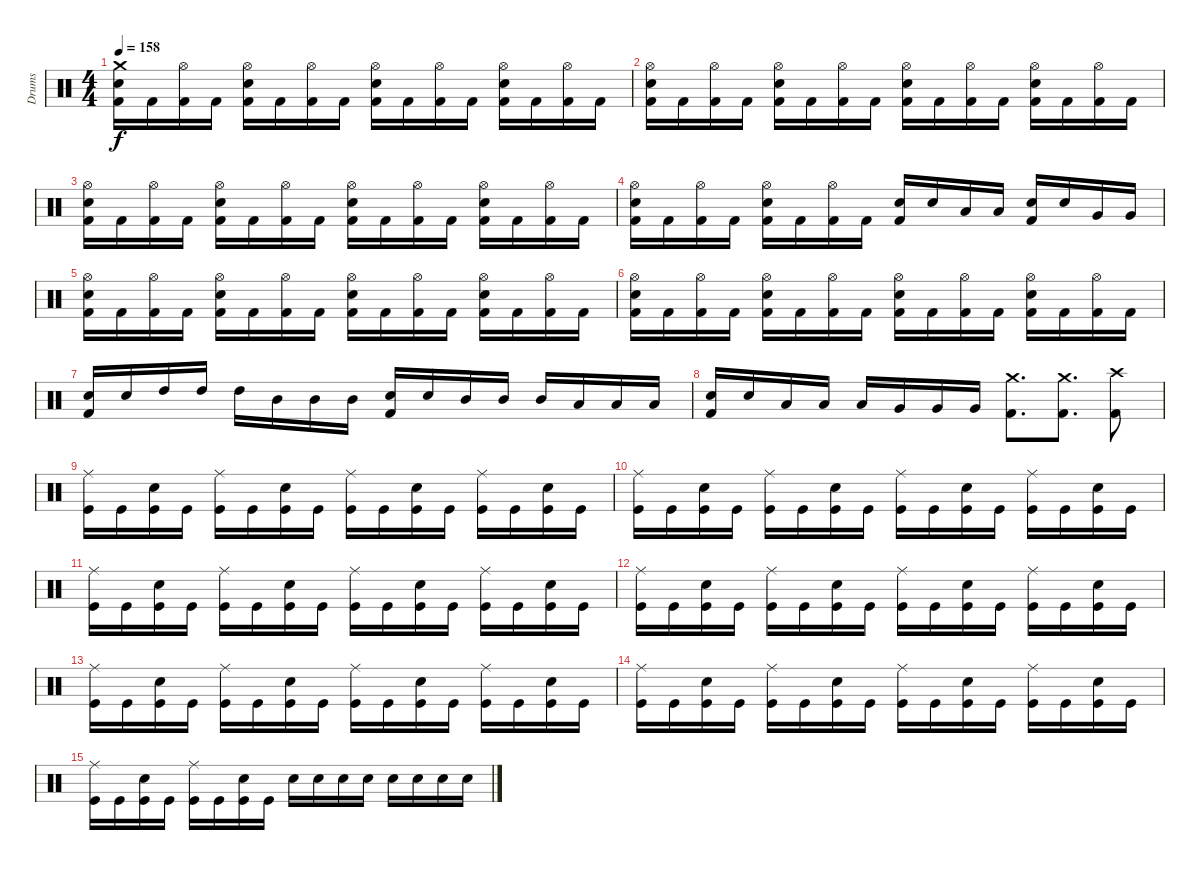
\track ("Drums" "Drums") {instrument percussion}
\staff {score}
\articulation defaults
\ts (4 4)
\tempo 158
\clef neutral
\ks c
("Crash medium (hit)" "Snare (hit) 2" "Kick (hit) 2").16{dy f} "Kick (hit) 2".16 ("Hi-Hat (open)" "Kick (hit) 2").16 "Kick (hit) 2".16 ("Hi-Hat (open)" "Snare (hit) 2" "Kick (hit) 2").16 "Kick (hit) 2".16 ("Hi-Hat (open)" "Kick (hit) 2").16 "Kick (hit) 2".16 ("Hi-Hat (open)" "Snare (hit) 2" "Kick (hit) 2").16 "Kick (hit) 2".16 ("Hi-Hat (open)" "Kick (hit) 2").16 "Kick (hit) 2".16 ("Hi-Hat (open)" "Snare (hit) 2" "Kick (hit) 2").16 "Kick (hit) 2".16 ("Hi-Hat (open)" "Kick (hit) 2").16 "Kick (hit) 2".16 |
("Hi-Hat (open)" "Snare (hit) 2" "Kick (hit) 2").16 "Kick (hit) 2".16 ("Hi-Hat (open)" "Kick (hit) 2").16 "Kick (hit) 2".16 ("Hi-Hat (open)" "Snare (hit) 2" "Kick (hit) 2").16 "Kick (hit) 2".16 ("Hi-Hat (open)" "Kick (hit) 2").16 "Kick (hit) 2".16 ("Hi-Hat (open)" "Snare (hit) 2" "Kick (hit) 2").16 "Kick (hit) 2".16 ("Hi-Hat (open)" "Kick (hit) 2").16 "Kick (hit) 2".16 ("Hi-Hat (open)" "Snare (hit) 2" "Kick (hit) 2").16 "Kick (hit) 2".16 ("Hi-Hat (open)" "Kick (hit) 2").16 "Kick (hit) 2".16 |
("Hi-Hat (open)" "Snare (hit) 2" "Kick (hit) 2").16 "Kick (hit) 2".16 ("Hi-Hat (open)" "Kick (hit) 2").16 "Kick (hit) 2".16 ("Hi-Hat (open)" "Snare (hit) 2" "Kick (hit) 2").16 "Kick (hit) 2".16 ("Hi-Hat (open)" "Kick (hit) 2").16 "Kick (hit) 2".16 ("Hi-Hat (open)" "Snare (hit) 2" "Kick (hit) 2").16 "Kick (hit) 2".16 ("Hi-Hat (open)" "Kick (hit) 2").16 "Kick (hit) 2".16 ("Hi-Hat (open)" "Snare (hit) 2" "Kick (hit) 2").16 "Kick (hit) 2".16 ("Hi-Hat (open)" "Kick (hit) 2").16 "Kick (hit) 2".16 |
("Hi-Hat (open)" "Snare (hit) 2" "Kick (hit) 2").16 "Kick (hit) 2".16 ("Hi-Hat (open)" "Kick (hit) 2").16 "Kick (hit) 2".16 ("Hi-Hat (open)" "Snare (hit) 2" "Kick (hit) 2").16 "Kick (hit) 2".16 ("Hi-Hat (open)" "Kick (hit) 2").16 "Kick (hit) 2".16 ("Snare (hit) 2" "Kick (hit) 2").16 "Snare (hit) 2".16 "Low Tom (hit)".16 "Low Tom (hit)".16 ("Snare (hit) 2" "Kick (hit) 2").16 "Snare (hit) 2".16 "Very Low Tom (hit)".16 "Very Low Tom (hit)".16 |
("Hi-Hat (open)" "Snare (hit) 2" "Kick (hit) 2").16 "Kick (hit) 2".16 ("Hi-Hat (open)" "Kick (hit) 2").16 "Kick (hit) 2".16 ("Hi-Hat (open)" "Snare (hit) 2" "Kick (hit) 2").16 "Kick (hit) 2".16 ("Hi-Hat (open)" "Kick (hit) 2").16 "Kick (hit) 2".16 ("Hi-Hat (open)" "Snare (hit) 2" "Kick (hit) 2").16 "Kick (hit) 2".16 ("Hi-Hat (open)" "Kick (hit) 2").16 "Kick (hit) 2".16 ("Hi-Hat (open)" "Snare (hit) 2" "Kick (hit) 2").16 "Kick (hit) 2".16 ("Hi-Hat (open)" "Kick (hit) 2").16 "Kick (hit) 2".16 |
("Hi-Hat (open)" "Snare (hit) 2" "Kick (hit) 2").16 "Kick (hit) 2".16 ("Hi-Hat (open)" "Kick (hit) 2").16 "Kick (hit) 2".16 ("Hi-Hat (open)" "Snare (hit) 2" "Kick (hit) 2").16 "Kick (hit) 2".16 ("Hi-Hat (open)" "Kick (hit) 2").16 "Kick (hit) 2".16 ("Hi-Hat (open)" "Snare (hit) 2" "Kick (hit) 2").16 "Kick (hit) 2".16 ("Hi-Hat (open)" "Kick (hit) 2").16 "Kick (hit) 2".16 ("Hi-Hat (open)" "Snare (hit) 2" "Kick (hit) 2").16 "Kick (hit) 2".16 ("Hi-Hat (open)" "Kick (hit) 2").16 "Kick (hit) 2".16 |
("Snare (hit) 2" "Kick (hit) 2").16 "Snare (hit) 2".16 "High Tom (hit)".16 "High Tom (hit)".16 "High Tom (hit)".16 "Mid Tom (hit)".16 "Mid Tom (hit)".16 "Mid Tom (hit)".16 ("Snare (hit) 2" "Kick (hit) 2").16 "Snare (hit) 2".16 "Mid Tom (hit)".16 "Mid Tom (hit)".16 "Mid Tom (hit)".16 "Low Tom (hit)".16 "Low Tom (hit)".16 "Low Tom (hit)".16 |
("Snare (hit) 2" "Kick (hit) 2").16 "Snare (hit) 2".16 "Low Tom (hit)".16 "Low Tom (hit)".16 "Low Tom (hit)".16 "Very Low Tom (hit)".16 "Very Low Tom (hit)".16 "Very Low Tom (hit)".16 ("Crash medium (hit)" "Kick (hit) 2").8{d} ("Crash medium (hit)" "Kick (hit) 2").8{d} ("Crash high (hit)" "Kick (hit) 2").8 |
("Ride (middle)" "Kick (hit)").16 "Kick (hit)".16 ("Snare (hit) 2" "Kick (hit)").16 "Kick (hit)".16 ("Ride (middle)" "Kick (hit)").16 "Kick (hit)".16 ("Snare (hit) 2" "Kick (hit)").16 "Kick (hit)".16 ("Ride (middle)" "Kick (hit)").16 "Kick (hit)".16 ("Snare (hit) 2" "Kick (hit)").16 "Kick (hit)".16 ("Ride (middle)" "Kick (hit)").16 "Kick (hit)".16 ("Snare (hit) 2" "Kick (hit)").16 "Kick (hit)".16 |
("Ride (middle)" "Kick (hit)").16 "Kick (hit)".16 ("Snare (hit) 2" "Kick (hit)").16 "Kick (hit)".16 ("Ride (middle)" "Kick (hit)").16 "Kick (hit)".16 ("Snare (hit) 2" "Kick (hit)").16 "Kick (hit)".16 ("Ride (middle)" "Kick (hit)").16 "Kick (hit)".16 ("Snare (hit) 2" "Kick (hit)").16 "Kick (hit)".16 ("Ride (middle)" "Kick (hit)").16 "Kick (hit)".16 ("Snare (hit) 2" "Kick (hit)").16 "Kick (hit)".16 |
("Ride (middle)" "Kick (hit)").16 "Kick (hit)".16 ("Snare (hit) 2" "Kick (hit)").16 "Kick (hit)".16 ("Ride (middle)" "Kick (hit)").16 "Kick (hit)".16 ("Snare (hit) 2" "Kick (hit)").16 "Kick (hit)".16 ("Ride (middle)" "Kick (hit)").16 "Kick (hit)".16 ("Snare (hit) 2" "Kick (hit)").16 "Kick (hit)".16 ("Ride (middle)" "Kick (hit)").16 "Kick (hit)".16 ("Snare (hit) 2" "Kick (hit)").16 "Kick (hit)".16 |
("Ride (middle)" "Kick (hit)").16 "Kick (hit)".16 ("Snare (hit) 2" "Kick (hit)").16 "Kick (hit)".16 ("Ride (middle)" "Kick (hit)").16 "Kick (hit)".16 ("Snare (hit) 2" "Kick (hit)").16 "Kick (hit)".16 ("Ride (middle)" "Kick (hit)").16 "Kick (hit)".16 ("Snare (hit) 2" "Kick (hit)").16 "Kick (hit)".16 ("Ride (middle)" "Kick (hit)").16 "Kick (hit)".16 ("Snare (hit) 2" "Kick (hit)").16 "Kick (hit)".16 |
("Ride (middle)" "Kick (hit)").16 "Kick (hit)".16 ("Snare (hit) 2" "Kick (hit)").16 "Kick (hit)".16 ("Ride (middle)" "Kick (hit)").16 "Kick (hit)".16 ("Snare (hit) 2" "Kick (hit)").16 "Kick (hit)".16 ("Ride (middle)" "Kick (hit)").16 "Kick (hit)".16 ("Snare (hit) 2" "Kick (hit)").16 "Kick (hit)".16 ("Ride (middle)" "Kick (hit)").16 "Kick (hit)".16 ("Snare (hit) 2" "Kick (hit)").16 "Kick (hit)".16 |
("Ride (middle)" "Kick (hit)").16 "Kick (hit)".16 ("Snare (hit) 2" "Kick (hit)").16 "Kick (hit)".16 ("Ride (middle)" "Kick (hit)").16 "Kick (hit)".16 ("Snare (hit) 2" "Kick (hit)").16 "Kick (hit)".16 ("Ride (middle)" "Kick (hit)").16 "Kick (hit)".16 ("Snare (hit) 2" "Kick (hit)").16 "Kick (hit)".16 ("Ride (middle)" "Kick (hit)").16 "Kick (hit)".16 ("Snare (hit) 2" "Kick (hit)").16 "Kick (hit)".16 |
("Ride (middle)" "Kick (hit)").16 "Kick (hit)".16 ("Snare (hit) 2" "Kick (hit)").16 "Kick (hit)".16 ("Ride (middle)" "Kick (hit)").16 "Kick (hit)".16 ("Snare (hit) 2" "Kick (hit)").16 "Kick (hit)".16 "Snare (hit) 2".16 "Snare (hit) 2".16 "Snare (hit) 2".16 "Snare (hit) 2".16 "Snare (hit) 2".16 "Snare (hit) 2".16 "Snare (hit) 2".16 "Snare (hit) 2".16
